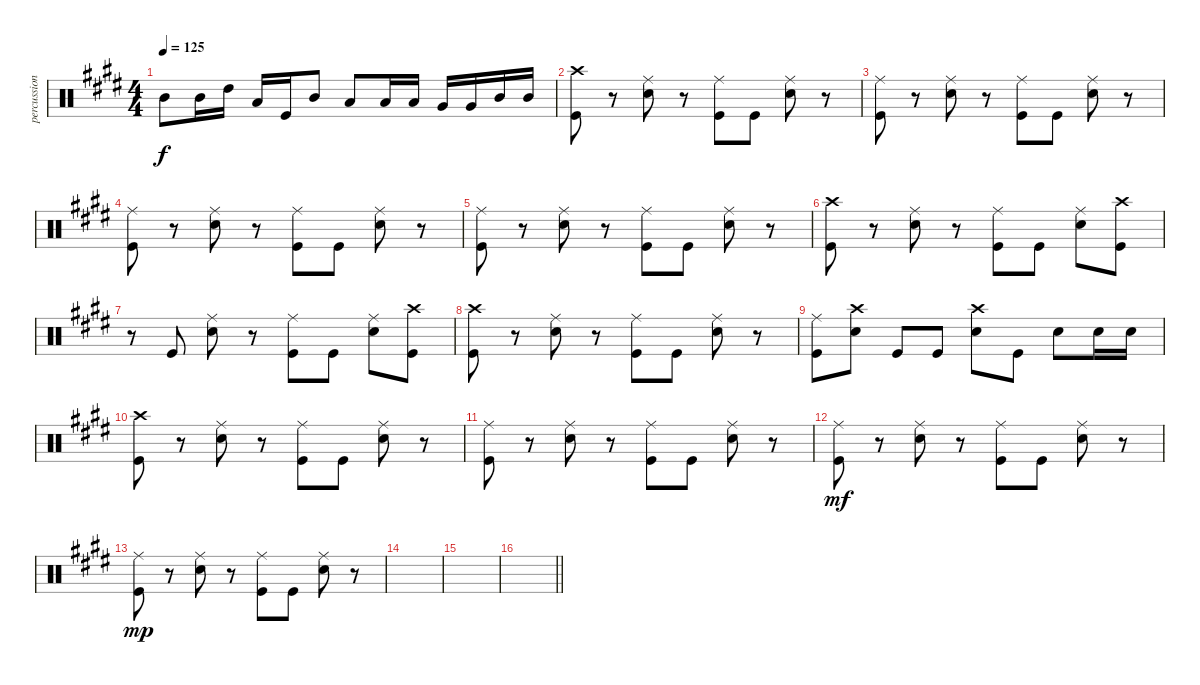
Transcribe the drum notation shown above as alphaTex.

\track ("percussion" "percussion") {instrument percussion}
\staff {score}
\articulation defaults
\ts (4 4)
\tempo 125
\clef neutral
\ks e "Mid Tom (hit)".8{dy f} "Mid Tom (hit)".16 "High Tom (hit)".16 "Low Tom (hit)".16 "Kick (hit)".16 "Mid Tom (hit)".8 "Low Tom (hit)".8 "Low Tom (hit)".16 "Low Tom (hit)".16 "Very Low Tom (hit)".16 "Very Low Tom (hit)".16 "Mid Tom (hit)".16 "Mid Tom (hit)".16
|
("Crash high (hit)" "Kick (hit)").8 r.8 ("Ride (middle)" "Electric Snare (hit)").8 r.8 ("Ride (middle)" "Kick (hit)").8 "Kick (hit)".8 ("Ride (middle)" "Electric Snare (hit)").8 r.8 |
("Ride (middle)" "Kick (hit)").8 r.8 ("Ride (middle)" "Electric Snare (hit)").8 r.8 ("Ride (middle)" "Kick (hit)").8 "Kick (hit)".8 ("Ride (middle)" "Electric Snare (hit)").8 r.8 |
("Ride (middle)" "Kick (hit)").8 r.8 ("Ride (middle)" "Electric Snare (hit)").8 r.8 ("Ride (middle)" "Kick (hit)").8 "Kick (hit)".8 ("Ride (middle)" "Electric Snare (hit)").8 r.8 |
("Ride (middle)" "Kick (hit)").8 r.8 ("Ride (middle)" "Electric Snare (hit)").8 r.8 ("Ride (middle)" "Kick (hit)").8 "Kick (hit)".8 ("Ride (middle)" "Electric Snare (hit)").8 r.8 |
("Crash high (hit)" "Kick (hit)").8 r.8 ("Ride (middle)" "Electric Snare (hit)").8 r.8 ("Ride (middle)" "Kick (hit)").8 "Kick (hit)".8 ("Ride (middle)" "Electric Snare (hit)").8 ("Crash high (hit)" "Kick (hit)").8 |
r.8 "Kick (hit)".8 ("Ride (middle)" "Electric Snare (hit)").8 r.8 ("Ride (middle)" "Kick (hit)").8 "Kick (hit)".8 ("Ride (middle)" "Electric Snare (hit)").8 ("Crash high (hit)" "Kick (hit)").8 |
("Crash high (hit)" "Kick (hit)").8 r.8 ("Ride (middle)" "Electric Snare (hit)").8 r.8 ("Ride (middle)" "Kick (hit)").8 "Kick (hit)".8 ("Ride (middle)" "Electric Snare (hit)").8 r.8 |
("Ride (middle)" "Kick (hit)").8 ("Crash high (hit)" "Electric Snare (hit)").8 "Kick (hit)".8 "Kick (hit)".8 ("Crash high (hit)" "Electric Snare (hit)").8 "Kick (hit)".8 "Electric Snare (hit)".8 "Electric Snare (hit)".16 "Electric Snare (hit)".16 |
("Crash high (hit)" "Kick (hit)").8 r.8 ("Ride (middle)" "Electric Snare (hit)").8 r.8 ("Ride (middle)" "Kick (hit)").8 "Kick (hit)".8 ("Ride (middle)" "Electric Snare (hit)").8 r.8 |
("Ride (middle)" "Kick (hit)").8 r.8 ("Ride (middle)" "Electric Snare (hit)").8 r.8 ("Ride (middle)" "Kick (hit)").8 "Kick (hit)".8 ("Ride (middle)" "Electric Snare (hit)").8 r.8 |
("Ride (middle)" "Kick (hit)").8{dy mf} r.8 ("Ride (middle)" "Electric Snare (hit)").8 r.8 ("Ride (middle)" "Kick (hit)").8 "Kick (hit)".8 ("Ride (middle)" "Electric Snare (hit)").8 r.8 |
("Ride (middle)" "Kick (hit)").8{dy mp} r.8 ("Ride (middle)" "Electric Snare (hit)").8 r.8 ("Ride (middle)" "Kick (hit)").8 "Kick (hit)".8 ("Ride (middle)" "Electric Snare (hit)").8 r.8 |
|
|
\barLineRight lightlight
